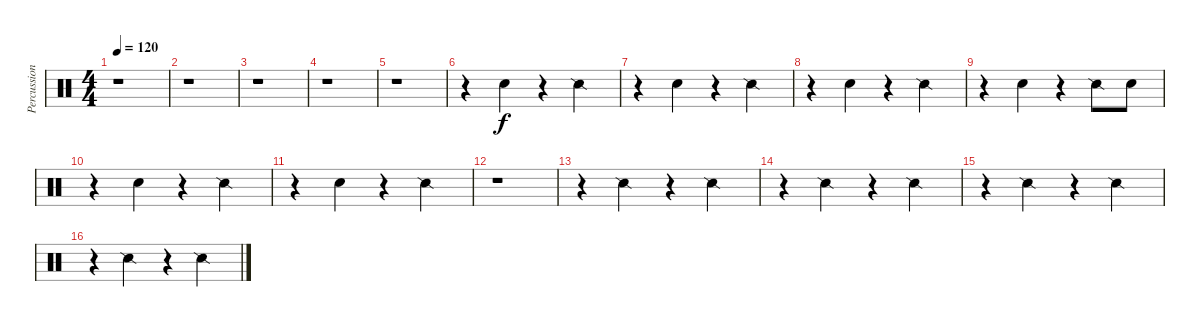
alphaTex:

\track ("Percussions" "Percussion") {instrument percussion}
\staff {score}
\articulation defaults
\ts (4 4)
\tempo 120
\clef neutral
\ks c
r.1{dy f} |
r.1 |
r.1 |
r.1 |
r.1 |
r.4 "Hand Clap (hit)".4 r.4 "Snare (side stick) 2".4 |
r.4 "Hand Clap (hit)".4 r.4 "Snare (side stick) 2".4 |
r.4 "Hand Clap (hit)".4 r.4 "Snare (side stick) 2".4 |
r.4 "Hand Clap (hit)".4 r.4 "Snare (side stick) 2".8 "Hand Clap (hit)".8 |
r.4 "Hand Clap (hit)".4 r.4 "Snare (side stick) 2".4 |
r.4 "Hand Clap (hit)".4 r.4 "Snare (side stick) 2".4 |
r.1 |
r.4 "Snare (side stick) 2".4 r.4 "Snare (side stick) 2".4 |
r.4 "Snare (side stick) 2".4 r.4 "Snare (side stick) 2".4 |
r.4 "Snare (side stick) 2".4 r.4 "Snare (side stick) 2".4 |
r.4 "Snare (side stick) 2".4 r.4 "Snare (side stick) 2".4
